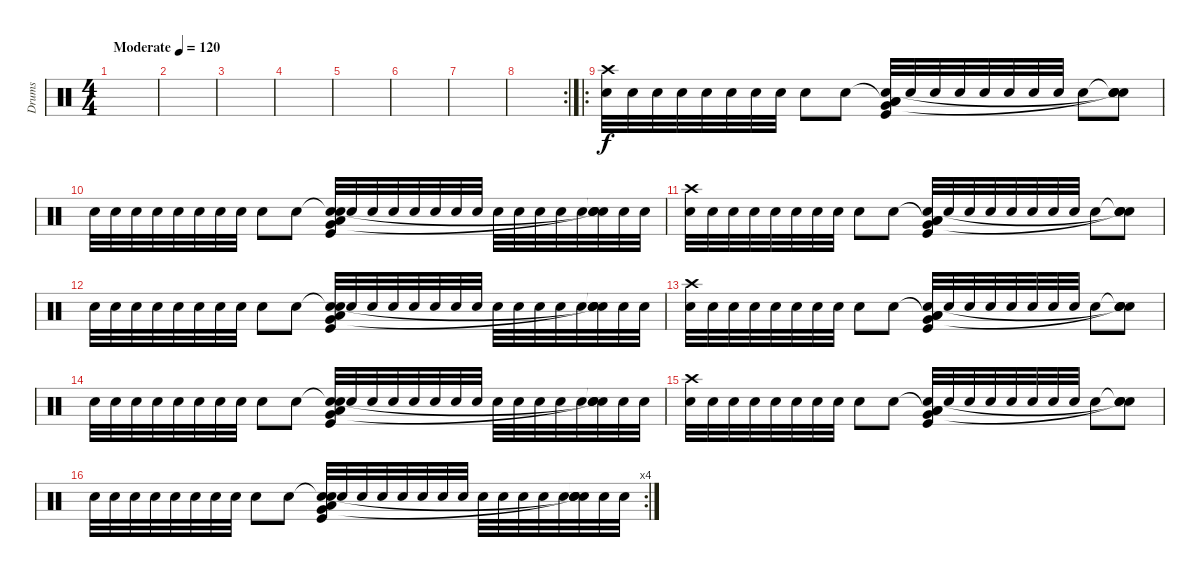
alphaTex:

\track ("Drums" "Drums") {instrument percussion}
\staff {score}
\articulation defaults
\ts (4 4)
\tempo (120 "Moderate")
\clef neutral
\ks c
|
|
|
|
|
|
|
\rc 2
|
\ro
("Crash high (hit)" "Snare (hit) 2").32 "Snare (hit) 2".32 "Snare (hit) 2".32 "Snare (hit) 2".32 "Snare (hit) 2".32 "Snare (hit) 2".32 "Snare (hit) 2".32 "Snare (hit) 2".32 "Snare (hit) 2".8 "Snare (hit) 2".8 ("Low Floor Tom (hit)"{t} "Very Low Tom (hit)" "Low Floor Tom (hit)" "Snare (hit) 2" "Kick (hit)").32 "Snare (hit) 2".32 "Snare (hit) 2".32 "Snare (hit) 2".32 "Snare (hit) 2".32 "Snare (hit) 2".32 "Snare (hit) 2".32 "Snare (hit) 2".32 "Snare (hit) 2".8 ("Snare (hit)"{t} "Snare (hit)"{t} "Snare (hit) 2" "Snare (hit)"{t}).8 |
"Snare (hit) 2".32 "Snare (hit) 2".32 "Snare (hit) 2".32 "Snare (hit) 2".32 "Snare (hit) 2".32 "Snare (hit) 2".32 "Snare (hit) 2".32 "Snare (hit) 2".32 "Snare (hit) 2".8 "Snare (hit) 2".8 ("Snare (hit)"{t} "Very Low Tom (hit)" "Low Floor Tom (hit)" "Snare (hit) 2" "Kick (hit)").32 "Snare (hit) 2".32 "Snare (hit) 2".32 "Snare (hit) 2".32 "Snare (hit) 2".32 "Snare (hit) 2".32 "Snare (hit) 2".32 "Snare (hit) 2".32 "Snare (hit) 2".32 "Snare (hit) 2".32 "Snare (hit) 2".32 "Snare (hit) 2".32 "Snare (hit) 2".32 ("Snare (hit)"{t} "Snare (hit)"{t} "Snare (hit) 2" "Snare (hit)"{t}).32 "Snare (hit) 2".32 "Snare (hit) 2".32 |
("Crash high (hit)" "Snare (hit) 2").32 "Snare (hit) 2".32 "Snare (hit) 2".32 "Snare (hit) 2".32 "Snare (hit) 2".32 "Snare (hit) 2".32 "Snare (hit) 2".32 "Snare (hit) 2".32 "Snare (hit) 2".8 "Snare (hit) 2".8 ("Low Floor Tom (hit)"{t} "Very Low Tom (hit)" "Low Floor Tom (hit)" "Snare (hit) 2" "Kick (hit)").32 "Snare (hit) 2".32 "Snare (hit) 2".32 "Snare (hit) 2".32 "Snare (hit) 2".32 "Snare (hit) 2".32 "Snare (hit) 2".32 "Snare (hit) 2".32 "Snare (hit) 2".8 ("Snare (hit)"{t} "Snare (hit)"{t} "Snare (hit) 2" "Snare (hit)"{t}).8 |
"Snare (hit) 2".32 "Snare (hit) 2".32 "Snare (hit) 2".32 "Snare (hit) 2".32 "Snare (hit) 2".32 "Snare (hit) 2".32 "Snare (hit) 2".32 "Snare (hit) 2".32 "Snare (hit) 2".8 "Snare (hit) 2".8 ("Snare (hit)"{t} "Very Low Tom (hit)" "Low Floor Tom (hit)" "Snare (hit) 2" "Kick (hit)").32 "Snare (hit) 2".32 "Snare (hit) 2".32 "Snare (hit) 2".32 "Snare (hit) 2".32 "Snare (hit) 2".32 "Snare (hit) 2".32 "Snare (hit) 2".32 "Snare (hit) 2".32 "Snare (hit) 2".32 "Snare (hit) 2".32 "Snare (hit) 2".32 "Snare (hit) 2".32 ("Snare (hit)"{t} "Snare (hit)"{t} "Snare (hit) 2" "Snare (hit)"{t}).32 "Snare (hit) 2".32 "Snare (hit) 2".32 |
("Crash high (hit)" "Snare (hit) 2").32 "Snare (hit) 2".32 "Snare (hit) 2".32 "Snare (hit) 2".32 "Snare (hit) 2".32 "Snare (hit) 2".32 "Snare (hit) 2".32 "Snare (hit) 2".32 "Snare (hit) 2".8 "Snare (hit) 2".8 ("Low Floor Tom (hit)"{t} "Very Low Tom (hit)" "Low Floor Tom (hit)" "Snare (hit) 2" "Kick (hit)").32 "Snare (hit) 2".32 "Snare (hit) 2".32 "Snare (hit) 2".32 "Snare (hit) 2".32 "Snare (hit) 2".32 "Snare (hit) 2".32 "Snare (hit) 2".32 "Snare (hit) 2".8 ("Snare (hit)"{t} "Snare (hit)"{t} "Snare (hit) 2" "Snare (hit)"{t}).8 |
"Snare (hit) 2".32 "Snare (hit) 2".32 "Snare (hit) 2".32 "Snare (hit) 2".32 "Snare (hit) 2".32 "Snare (hit) 2".32 "Snare (hit) 2".32 "Snare (hit) 2".32 "Snare (hit) 2".8 "Snare (hit) 2".8 ("Snare (hit)"{t} "Very Low Tom (hit)" "Low Floor Tom (hit)" "Snare (hit) 2" "Kick (hit)").32 "Snare (hit) 2".32 "Snare (hit) 2".32 "Snare (hit) 2".32 "Snare (hit) 2".32 "Snare (hit) 2".32 "Snare (hit) 2".32 "Snare (hit) 2".32 "Snare (hit) 2".32 "Snare (hit) 2".32 "Snare (hit) 2".32 "Snare (hit) 2".32 "Snare (hit) 2".32 ("Snare (hit)"{t} "Snare (hit)"{t} "Snare (hit) 2" "Snare (hit)"{t}).32 "Snare (hit) 2".32 "Snare (hit) 2".32 |
("Crash high (hit)" "Snare (hit) 2").32 "Snare (hit) 2".32 "Snare (hit) 2".32 "Snare (hit) 2".32 "Snare (hit) 2".32 "Snare (hit) 2".32 "Snare (hit) 2".32 "Snare (hit) 2".32 "Snare (hit) 2".8 "Snare (hit) 2".8 ("Low Floor Tom (hit)"{t} "Very Low Tom (hit)" "Low Floor Tom (hit)" "Snare (hit) 2" "Kick (hit)").32 "Snare (hit) 2".32 "Snare (hit) 2".32 "Snare (hit) 2".32 "Snare (hit) 2".32 "Snare (hit) 2".32 "Snare (hit) 2".32 "Snare (hit) 2".32 "Snare (hit) 2".8 ("Snare (hit)"{t} "Snare (hit)"{t} "Snare (hit) 2" "Snare (hit)"{t}).8 |
\rc 4 "Snare (hit) 2".32 "Snare (hit) 2".32 "Snare (hit) 2".32 "Snare (hit) 2".32 "Snare (hit) 2".32 "Snare (hit) 2".32 "Snare (hit) 2".32 "Snare (hit) 2".32 "Snare (hit) 2".8 "Snare (hit) 2".8
("Snare (hit)"{t} "Very Low Tom (hit)" "Low Floor Tom (hit)" "Snare (hit) 2" "Kick (hit)").32 "Snare (hit) 2".32 "Snare (hit) 2".32 "Snare (hit) 2".32 "Snare (hit) 2".32 "Snare (hit) 2".32 "Snare (hit) 2".32 "Snare (hit) 2".32 "Snare (hit) 2".32 "Snare (hit) 2".32 "Snare (hit) 2".32 "Snare (hit) 2".32 "Snare (hit) 2".32 ("Snare (hit)"{t} "Snare (hit)"{t} "Snare (hit) 2" "Snare (hit)"{t}).32 "Snare (hit) 2".32 "Snare (hit) 2".32
